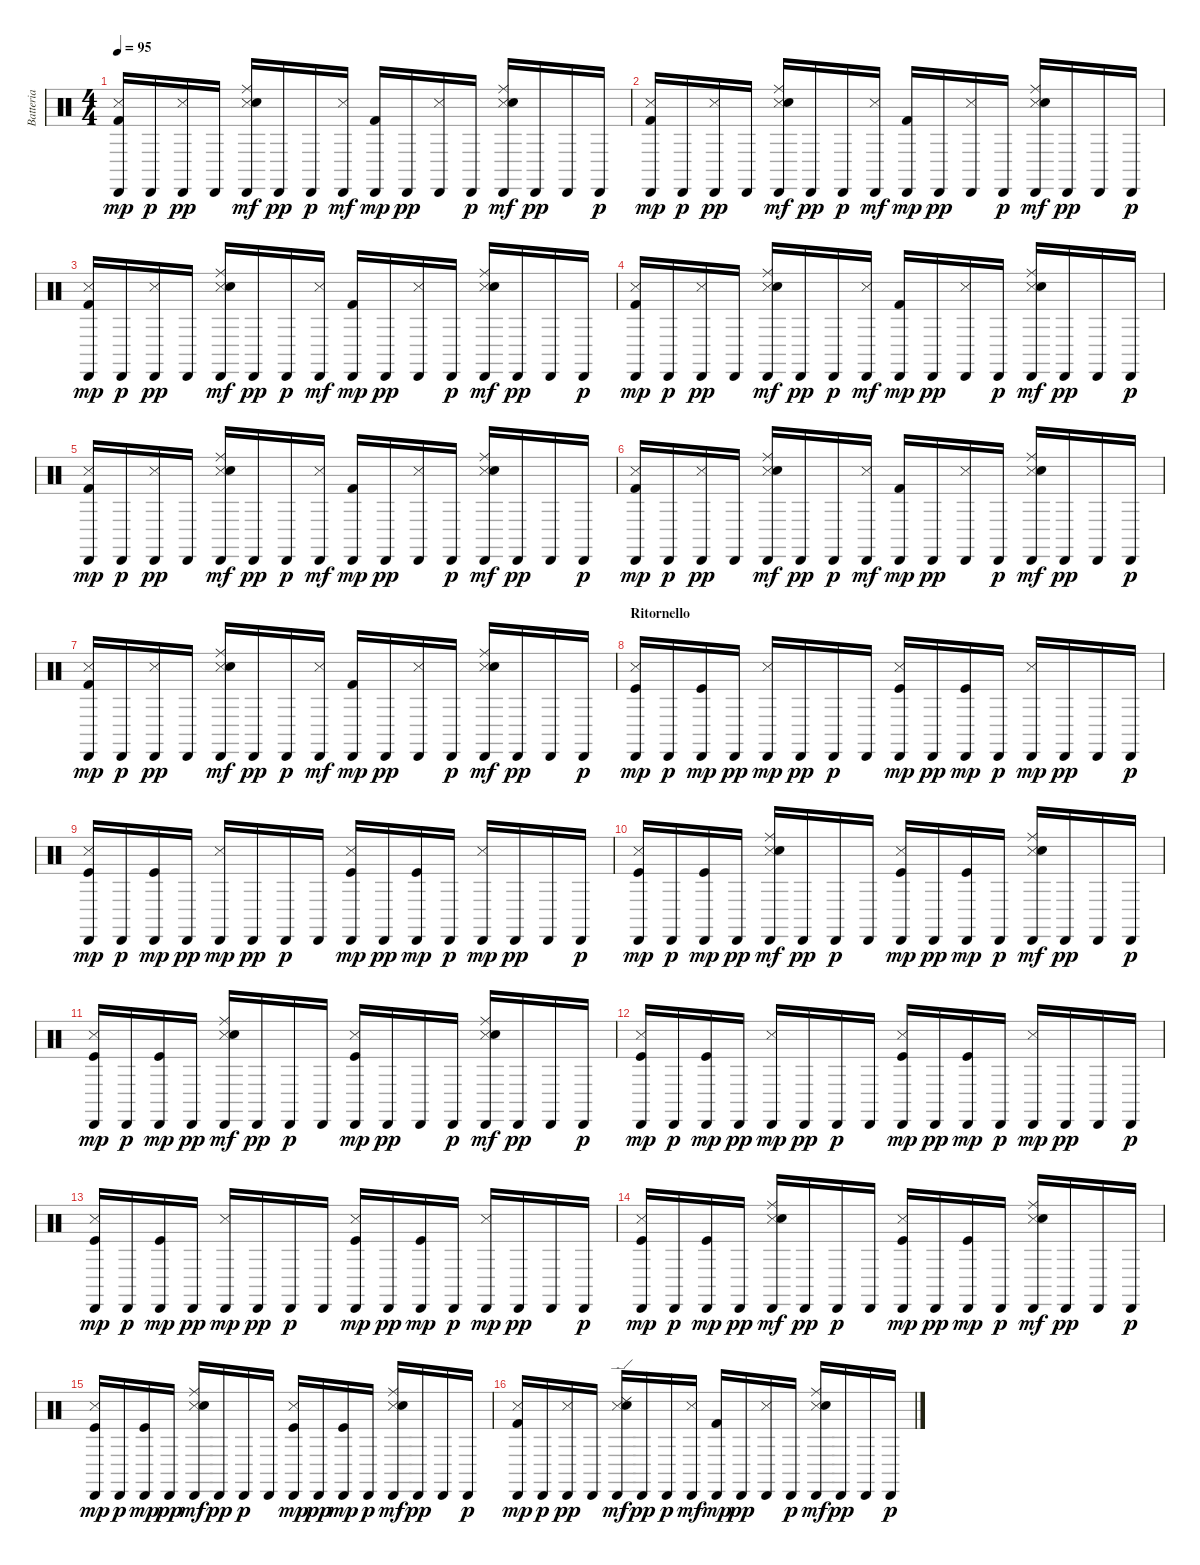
\track ("Batteria" "Batteria") {instrument percussion}
\staff {score}
\articulation defaults
\ts (4 4)
\tempo 95
\clef neutral
\ks c
("Metronome (hit)" "Cabasa (hit)" "Kick (hit) 2").16{dy mp} "Cabasa (hit)".16{dy p} ("Metronome (hit)" "Cabasa (hit)").16{dy pp} "Cabasa (hit)".16 ("Snare (side stick) 3" "Cabasa (hit)" "Snare (hit) 2" "Ride (middle)").16{dy mf} "Cabasa (hit)".16{dy pp} "Cabasa (hit)".16{dy p} ("Metronome (hit)" "Cabasa (hit)").16{dy mf} ("Cabasa (hit)" "Kick (hit) 2").16{dy mp} "Cabasa (hit)".16{dy pp} ("Metronome (hit)" "Cabasa (hit)").16 "Cabasa (hit)".16{dy p} ("Snare (side stick) 3" "Cabasa (hit)" "Snare (hit) 2" "Ride (middle)").16{dy mf} "Cabasa (hit)".16{dy pp} "Cabasa (hit)".16 "Cabasa (hit)".16{dy p} |
("Metronome (hit)" "Cabasa (hit)" "Kick (hit) 2").16{dy mp} "Cabasa (hit)".16{dy p} ("Metronome (hit)" "Cabasa (hit)").16{dy pp} "Cabasa (hit)".16 ("Snare (side stick) 3" "Cabasa (hit)" "Snare (hit) 2" "Ride (middle)").16{dy mf} "Cabasa (hit)".16{dy pp} "Cabasa (hit)".16{dy p} ("Metronome (hit)" "Cabasa (hit)").16{dy mf} ("Cabasa (hit)" "Kick (hit) 2").16{dy mp} "Cabasa (hit)".16{dy pp} ("Metronome (hit)" "Cabasa (hit)").16 "Cabasa (hit)".16{dy p} ("Snare (side stick) 3" "Cabasa (hit)" "Snare (hit) 2" "Ride (middle)").16{dy mf} "Cabasa (hit)".16{dy pp} "Cabasa (hit)".16 "Cabasa (hit)".16{dy p} |
("Metronome (hit)" "Cabasa (hit)" "Kick (hit) 2").16{dy mp} "Cabasa (hit)".16{dy p} ("Metronome (hit)" "Cabasa (hit)").16{dy pp} "Cabasa (hit)".16 ("Snare (side stick) 3" "Cabasa (hit)" "Snare (hit) 2" "Ride (middle)").16{dy mf} "Cabasa (hit)".16{dy pp} "Cabasa (hit)".16{dy p} ("Metronome (hit)" "Cabasa (hit)").16{dy mf} ("Cabasa (hit)" "Kick (hit) 2").16{dy mp} "Cabasa (hit)".16{dy pp} ("Metronome (hit)" "Cabasa (hit)").16 "Cabasa (hit)".16{dy p} ("Snare (side stick) 3" "Cabasa (hit)" "Snare (hit) 2" "Ride (middle)").16{dy mf} "Cabasa (hit)".16{dy pp} "Cabasa (hit)".16 "Cabasa (hit)".16{dy p} |
("Metronome (hit)" "Cabasa (hit)" "Kick (hit) 2").16{dy mp} "Cabasa (hit)".16{dy p} ("Metronome (hit)" "Cabasa (hit)").16{dy pp} "Cabasa (hit)".16 ("Snare (side stick) 3" "Cabasa (hit)" "Snare (hit) 2" "Ride (middle)").16{dy mf} "Cabasa (hit)".16{dy pp} "Cabasa (hit)".16{dy p} ("Metronome (hit)" "Cabasa (hit)").16{dy mf} ("Cabasa (hit)" "Kick (hit) 2").16{dy mp} "Cabasa (hit)".16{dy pp} ("Metronome (hit)" "Cabasa (hit)").16 "Cabasa (hit)".16{dy p} ("Snare (side stick) 3" "Cabasa (hit)" "Snare (hit) 2" "Ride (middle)").16{dy mf} "Cabasa (hit)".16{dy pp} "Cabasa (hit)".16 "Cabasa (hit)".16{dy p} |
("Metronome (hit)" "Cabasa (hit)" "Kick (hit) 2").16{dy mp} "Cabasa (hit)".16{dy p} ("Metronome (hit)" "Cabasa (hit)").16{dy pp} "Cabasa (hit)".16 ("Snare (side stick) 3" "Cabasa (hit)" "Snare (hit) 2" "Ride (middle)").16{dy mf} "Cabasa (hit)".16{dy pp} "Cabasa (hit)".16{dy p} ("Metronome (hit)" "Cabasa (hit)").16{dy mf} ("Cabasa (hit)" "Kick (hit) 2").16{dy mp} "Cabasa (hit)".16{dy pp} ("Metronome (hit)" "Cabasa (hit)").16 "Cabasa (hit)".16{dy p} ("Snare (side stick) 3" "Cabasa (hit)" "Snare (hit) 2" "Ride (middle)").16{dy mf} "Cabasa (hit)".16{dy pp} "Cabasa (hit)".16 "Cabasa (hit)".16{dy p} |
("Metronome (hit)" "Cabasa (hit)" "Kick (hit) 2").16{dy mp} "Cabasa (hit)".16{dy p} ("Metronome (hit)" "Cabasa (hit)").16{dy pp} "Cabasa (hit)".16 ("Snare (side stick) 3" "Cabasa (hit)" "Snare (hit) 2" "Ride (middle)").16{dy mf} "Cabasa (hit)".16{dy pp} "Cabasa (hit)".16{dy p} ("Metronome (hit)" "Cabasa (hit)").16{dy mf} ("Cabasa (hit)" "Kick (hit) 2").16{dy mp} "Cabasa (hit)".16{dy pp} ("Metronome (hit)" "Cabasa (hit)").16 "Cabasa (hit)".16{dy p} ("Snare (side stick) 3" "Cabasa (hit)" "Snare (hit) 2" "Ride (middle)").16{dy mf} "Cabasa (hit)".16{dy pp} "Cabasa (hit)".16 "Cabasa (hit)".16{dy p} |
("Metronome (hit)" "Cabasa (hit)" "Kick (hit) 2").16{dy mp} "Cabasa (hit)".16{dy p} ("Metronome (hit)" "Cabasa (hit)").16{dy pp} "Cabasa (hit)".16 ("Snare (side stick) 3" "Cabasa (hit)" "Snare (hit) 2" "Ride (middle)").16{dy mf} "Cabasa (hit)".16{dy pp} "Cabasa (hit)".16{dy p} ("Metronome (hit)" "Cabasa (hit)").16{dy mf} ("Cabasa (hit)" "Kick (hit) 2").16{dy mp} "Cabasa (hit)".16{dy pp} ("Metronome (hit)" "Cabasa (hit)").16 "Cabasa (hit)".16{dy p} ("Snare (side stick) 3" "Cabasa (hit)" "Snare (hit) 2" "Ride (middle)").16{dy mf} "Cabasa (hit)".16{dy pp} "Cabasa (hit)".16 "Cabasa (hit)".16{dy p} |
\section ("" "Ritornello")
("Metronome (hit)" "Cabasa (hit)" "Kick (hit)").16{dy mp} "Cabasa (hit)".16{dy p} ("Cabasa (hit)" "Kick (hit)").16{dy mp} "Cabasa (hit)".16{dy pp} ("Metronome (hit)" "Cabasa (hit)").16{dy mp} "Cabasa (hit)".16{dy pp} "Cabasa (hit)".16{dy p} "Cabasa (hit)".16 ("Metronome (hit)" "Cabasa (hit)" "Kick (hit)").16{dy mp} "Cabasa (hit)".16{dy pp} ("Cabasa (hit)" "Kick (hit)").16{dy mp} "Cabasa (hit)".16{dy p} ("Metronome (hit)" "Cabasa (hit)").16{dy mp} "Cabasa (hit)".16{dy pp} "Cabasa (hit)".16 "Cabasa (hit)".16{dy p} |
("Metronome (hit)" "Cabasa (hit)" "Kick (hit)").16{dy mp} "Cabasa (hit)".16{dy p} ("Cabasa (hit)" "Kick (hit)").16{dy mp} "Cabasa (hit)".16{dy pp} ("Metronome (hit)" "Cabasa (hit)").16{dy mp} "Cabasa (hit)".16{dy pp} "Cabasa (hit)".16{dy p} "Cabasa (hit)".16 ("Metronome (hit)" "Cabasa (hit)" "Kick (hit)").16{dy mp} "Cabasa (hit)".16{dy pp} ("Cabasa (hit)" "Kick (hit)").16{dy mp} "Cabasa (hit)".16{dy p} ("Metronome (hit)" "Cabasa (hit)").16{dy mp} "Cabasa (hit)".16{dy pp} "Cabasa (hit)".16 "Cabasa (hit)".16{dy p} |
("Metronome (hit)" "Cabasa (hit)" "Kick (hit)").16{dy mp} "Cabasa (hit)".16{dy p} ("Cabasa (hit)" "Kick (hit)").16{dy mp} "Cabasa (hit)".16{dy pp} ("Metronome (hit)" "Cabasa (hit)" "Snare (hit) 2" "Ride (middle)").16{dy mf} "Cabasa (hit)".16{dy pp} "Cabasa (hit)".16{dy p} "Cabasa (hit)".16 ("Metronome (hit)" "Cabasa (hit)" "Kick (hit)").16{dy mp} "Cabasa (hit)".16{dy pp} ("Cabasa (hit)" "Kick (hit)").16{dy mp} "Cabasa (hit)".16{dy p} ("Metronome (hit)" "Cabasa (hit)" "Snare (hit) 2" "Ride (middle)").16{dy mf} "Cabasa (hit)".16{dy pp} "Cabasa (hit)".16 "Cabasa (hit)".16{dy p} |
("Metronome (hit)" "Cabasa (hit)" "Kick (hit)").16{dy mp} "Cabasa (hit)".16{dy p} ("Cabasa (hit)" "Kick (hit)").16{dy mp} "Cabasa (hit)".16{dy pp} ("Metronome (hit)" "Cabasa (hit)" "Snare (hit) 2" "Ride (middle)").16{dy mf} "Cabasa (hit)".16{dy pp} "Cabasa (hit)".16{dy p} "Cabasa (hit)".16 ("Metronome (hit)" "Cabasa (hit)" "Kick (hit)").16{dy mp} "Cabasa (hit)".16{dy pp} "Cabasa (hit)".16 "Cabasa (hit)".16{dy p} ("Metronome (hit)" "Cabasa (hit)" "Snare (hit) 2" "Ride (middle)").16{dy mf} "Cabasa (hit)".16{dy pp} "Cabasa (hit)".16 "Cabasa (hit)".16{dy p} |
("Metronome (hit)" "Cabasa (hit)" "Kick (hit)").16{dy mp} "Cabasa (hit)".16{dy p} ("Cabasa (hit)" "Kick (hit)").16{dy mp} "Cabasa (hit)".16{dy pp} ("Metronome (hit)" "Cabasa (hit)").16{dy mp} "Cabasa (hit)".16{dy pp} "Cabasa (hit)".16{dy p} "Cabasa (hit)".16 ("Metronome (hit)" "Cabasa (hit)" "Kick (hit)").16{dy mp} "Cabasa (hit)".16{dy pp} ("Cabasa (hit)" "Kick (hit)").16{dy mp} "Cabasa (hit)".16{dy p} ("Metronome (hit)" "Cabasa (hit)").16{dy mp} "Cabasa (hit)".16{dy pp} "Cabasa (hit)".16 "Cabasa (hit)".16{dy p} |
("Metronome (hit)" "Cabasa (hit)" "Kick (hit)").16{dy mp} "Cabasa (hit)".16{dy p} ("Cabasa (hit)" "Kick (hit)").16{dy mp} "Cabasa (hit)".16{dy pp} ("Metronome (hit)" "Cabasa (hit)").16{dy mp} "Cabasa (hit)".16{dy pp} "Cabasa (hit)".16{dy p} "Cabasa (hit)".16 ("Metronome (hit)" "Cabasa (hit)" "Kick (hit)").16{dy mp} "Cabasa (hit)".16{dy pp} ("Cabasa (hit)" "Kick (hit)").16{dy mp} "Cabasa (hit)".16{dy p} ("Metronome (hit)" "Cabasa (hit)").16{dy mp} "Cabasa (hit)".16{dy pp} "Cabasa (hit)".16 "Cabasa (hit)".16{dy p} |
("Metronome (hit)" "Cabasa (hit)" "Kick (hit)").16{dy mp} "Cabasa (hit)".16{dy p} ("Cabasa (hit)" "Kick (hit)").16{dy mp} "Cabasa (hit)".16{dy pp} ("Metronome (hit)" "Cabasa (hit)" "Snare (hit) 2" "Ride (middle)").16{dy mf} "Cabasa (hit)".16{dy pp} "Cabasa (hit)".16{dy p} "Cabasa (hit)".16 ("Metronome (hit)" "Cabasa (hit)" "Kick (hit)").16{dy mp} "Cabasa (hit)".16{dy pp} ("Cabasa (hit)" "Kick (hit)").16{dy mp} "Cabasa (hit)".16{dy p} ("Metronome (hit)" "Cabasa (hit)" "Snare (hit) 2" "Ride (middle)").16{dy mf} "Cabasa (hit)".16{dy pp} "Cabasa (hit)".16 "Cabasa (hit)".16{dy p} |
("Metronome (hit)" "Cabasa (hit)" "Kick (hit)").16{dy mp} "Cabasa (hit)".16{dy p} ("Cabasa (hit)" "Kick (hit)").16{dy mp} "Cabasa (hit)".16{dy pp} ("Metronome (hit)" "Cabasa (hit)" "Snare (hit) 2" "Ride (middle)").16{dy mf} "Cabasa (hit)".16{dy pp} "Cabasa (hit)".16{dy p} "Cabasa (hit)".16 ("Metronome (hit)" "Cabasa (hit)" "Kick (hit)").16{dy mp} "Cabasa (hit)".16{dy pp} ("Cabasa (hit)" "Kick (hit)").16{dy mp} "Cabasa (hit)".16{dy p} ("Metronome (hit)" "Cabasa (hit)" "Snare (hit) 2" "Ride (middle)").16{dy mf} "Cabasa (hit)".16{dy pp} "Cabasa (hit)".16 "Cabasa (hit)".16{dy p} |
("Metronome (hit)" "Cabasa (hit)" "Kick (hit) 2").16{dy mp} "Cabasa (hit)".16{dy p} ("Metronome (hit)" "Cabasa (hit)").16{dy pp} "Cabasa (hit)".16 ("Snare (side stick) 3" "Cabasa (hit)" "Ride (edge) 2" "Snare (hit) 2").16{dy mf} "Cabasa (hit)".16{dy pp} "Cabasa (hit)".16{dy p} ("Metronome (hit)" "Cabasa (hit)").16{dy mf} ("Cabasa (hit)" "Kick (hit) 2").16{dy mp} "Cabasa (hit)".16{dy pp} ("Metronome (hit)" "Cabasa (hit)").16 "Cabasa (hit)".16{dy p} ("Snare (side stick) 3" "Cabasa (hit)" "Snare (hit) 2" "Ride (middle)").16{dy mf} "Cabasa (hit)".16{dy pp} "Cabasa (hit)".16 "Cabasa (hit)".16{dy p}
